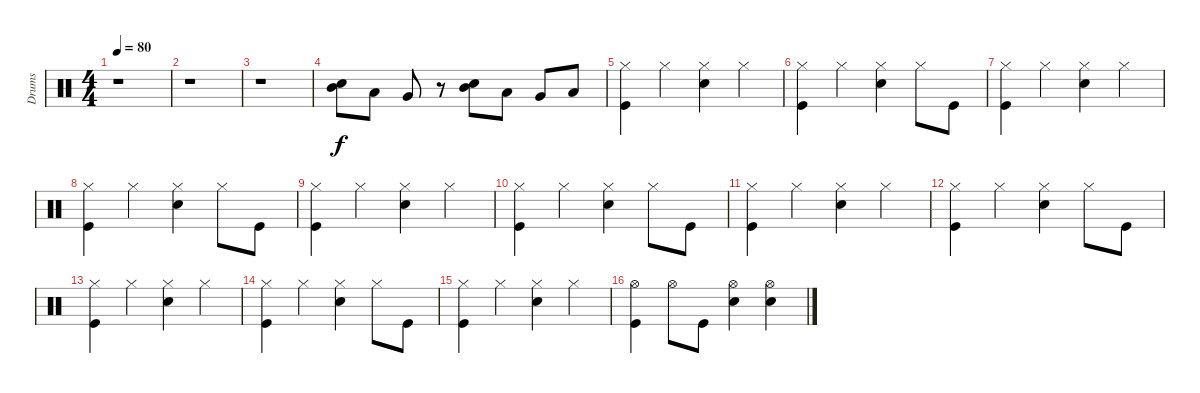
\track ("Drums" "Drums") {instrument percussion}
\staff {score}
\articulation defaults
\ts (4 4)
\tempo 80
\clef neutral
\ks c
r.1{dy f} |
r.1 |
r.1 |
("Mid Tom (hit)" "Snare (hit) 2").8 "Low Tom (hit)".8 "Very Low Tom (hit)".8 r.8 ("Mid Tom (hit)" "Snare (hit) 2").8 "Low Tom (hit)".8 "Very Low Tom (hit)".8 "Low Floor Tom (hit)".8 |
("Hi-Hat (closed)" "Kick (hit)").4 "Hi-Hat (closed)".4 ("Hi-Hat (closed)" "Snare (hit) 2").4 "Hi-Hat (closed)".4 |
("Hi-Hat (closed)" "Kick (hit)").4 "Hi-Hat (closed)".4 ("Hi-Hat (closed)" "Snare (hit) 2").4 "Hi-Hat (closed)".8 "Kick (hit)".8 |
("Hi-Hat (closed)" "Kick (hit)").4 "Hi-Hat (closed)".4 ("Hi-Hat (closed)" "Snare (hit) 2").4 "Hi-Hat (closed)".4 |
("Hi-Hat (closed)" "Kick (hit)").4 "Hi-Hat (closed)".4 ("Hi-Hat (closed)" "Snare (hit) 2").4 "Hi-Hat (closed)".8 "Kick (hit)".8 |
("Hi-Hat (closed)" "Kick (hit)").4 "Hi-Hat (closed)".4 ("Hi-Hat (closed)" "Snare (hit) 2").4 "Hi-Hat (closed)".4 |
("Hi-Hat (closed)" "Kick (hit)").4 "Hi-Hat (closed)".4 ("Hi-Hat (closed)" "Snare (hit) 2").4 "Hi-Hat (closed)".8 "Kick (hit)".8 |
("Hi-Hat (closed)" "Kick (hit)").4 "Hi-Hat (closed)".4 ("Hi-Hat (closed)" "Snare (hit) 2").4 "Hi-Hat (closed)".4 |
("Hi-Hat (closed)" "Kick (hit)").4 "Hi-Hat (closed)".4 ("Hi-Hat (closed)" "Snare (hit) 2").4 "Hi-Hat (closed)".8 "Kick (hit)".8 |
("Hi-Hat (closed)" "Kick (hit)").4 "Hi-Hat (closed)".4 ("Hi-Hat (closed)" "Snare (hit) 2").4 "Hi-Hat (closed)".4 |
("Hi-Hat (closed)" "Kick (hit)").4 "Hi-Hat (closed)".4 ("Hi-Hat (closed)" "Snare (hit) 2").4 "Hi-Hat (closed)".8 "Kick (hit)".8 |
("Hi-Hat (closed)" "Kick (hit)").4 "Hi-Hat (closed)".4 ("Hi-Hat (closed)" "Snare (hit) 2").4 "Hi-Hat (closed)".4 |
("Hi-Hat (open)" "Kick (hit)").4 "Hi-Hat (open)".8 "Kick (hit)".8 ("Hi-Hat (open)" "Snare (hit) 2").4 ("Hi-Hat (open)" "Snare (hit) 2").4
